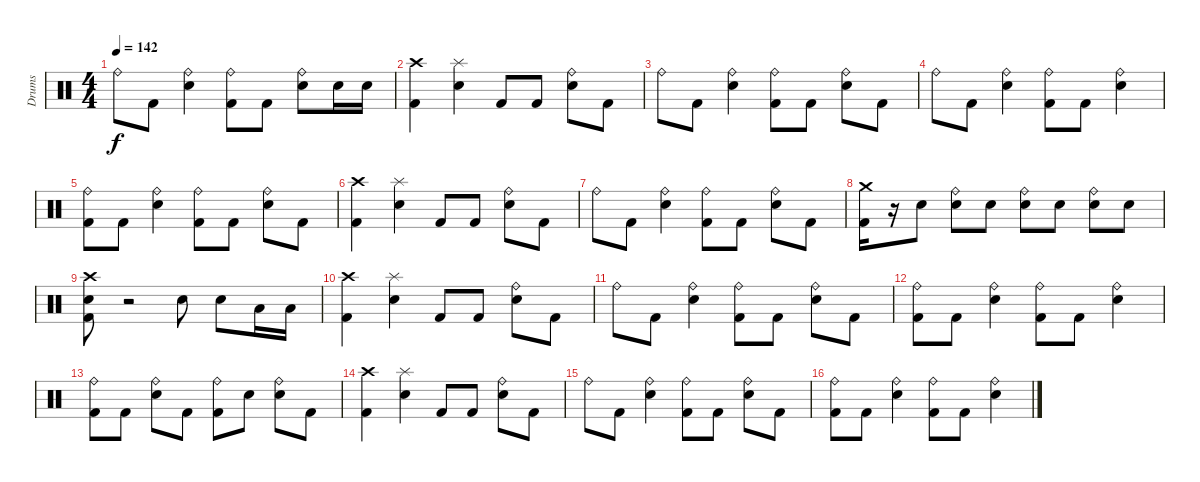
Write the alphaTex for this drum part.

\track ("Drums" "Drums") {instrument percussion}
\staff {score}
\articulation defaults
\ts (4 4)
\tempo 142
\clef neutral
\ks c "Ride (bell)".8{dy f} "Kick (hit) 2".8
("Snare (hit) 2" "Ride (bell)").4 ("Kick (hit) 2" "Ride (bell)").8 "Kick (hit) 2".8 ("Snare (hit) 2" "Ride (bell)").8 "Snare (hit) 2".16 "Snare (hit) 2".16 |
("Kick (hit) 2" "Crash high (hit)").4 ("Snare (hit) 2" "Splash (hit)").4 "Kick (hit) 2".8 "Kick (hit) 2".8 ("Snare (hit) 2" "Ride (bell)").8 "Kick (hit) 2".8 |
"Ride (bell)".8 "Kick (hit) 2".8 ("Snare (hit) 2" "Ride (bell)").4 ("Kick (hit) 2" "Ride (bell)").8 "Kick (hit) 2".8 ("Snare (hit) 2" "Ride (bell)").8 "Kick (hit) 2".8 |
"Ride (bell)".8 "Kick (hit) 2".8 ("Snare (hit) 2" "Ride (bell)").4 ("Kick (hit) 2" "Ride (bell)").8 "Kick (hit) 2".8 ("Snare (hit) 2" "Ride (bell)").4 |
("Kick (hit) 2" "Ride (bell)").8 "Kick (hit) 2".8 ("Snare (hit) 2" "Ride (bell)").4 ("Kick (hit) 2" "Ride (bell)").8 "Kick (hit) 2".8 ("Snare (hit) 2" "Ride (bell)").8 "Kick (hit) 2".8 |
("Kick (hit) 2" "Crash high (hit)").4 ("Snare (hit) 2" "Splash (hit)").4 "Kick (hit) 2".8 "Kick (hit) 2".8 ("Snare (hit) 2" "Ride (bell)").8 "Kick (hit) 2".8 |
"Ride (bell)".8 "Kick (hit) 2".8 ("Snare (hit) 2" "Ride (bell)").4 ("Kick (hit) 2" "Ride (bell)").8 "Kick (hit) 2".8 ("Snare (hit) 2" "Ride (bell)").8 "Kick (hit) 2".8 |
("Kick (hit) 2" "Crash medium (hit)").16 r.16{volume 4} "Snare (hit) 2".8{volume 15} ("Snare (hit) 2" "Ride (bell)").8 "Snare (hit) 2".8 ("Snare (hit) 2" "Ride (bell)").8 "Snare (hit) 2".8 ("Snare (hit) 2" "Ride (bell)").8 "Snare (hit) 2".8 |
("Kick (hit) 2" "Snare (hit) 2" "Crash high (hit)").8 r.2 "Snare (hit) 2".8 "Snare (hit) 2".8 "Low Tom (hit)".16 "Low Tom (hit)".16 |
("Kick (hit) 2" "Crash high (hit)").4 ("Snare (hit) 2" "Splash (hit)").4 "Kick (hit) 2".8 "Kick (hit) 2".8 ("Snare (hit) 2" "Ride (bell)").8 "Kick (hit) 2".8 |
"Ride (bell)".8 "Kick (hit) 2".8 ("Snare (hit) 2" "Ride (bell)").4 ("Kick (hit) 2" "Ride (bell)").8 "Kick (hit) 2".8 ("Snare (hit) 2" "Ride (bell)").8 "Kick (hit) 2".8 |
("Kick (hit) 2" "Ride (bell)").8 "Kick (hit) 2".8 ("Snare (hit) 2" "Ride (bell)").4 ("Kick (hit) 2" "Ride (bell)").8 "Kick (hit) 2".8 ("Snare (hit) 2" "Ride (bell)").4 |
("Kick (hit) 2" "Ride (bell)").8 "Kick (hit) 2".8 ("Snare (hit) 2" "Ride (bell)").8 "Kick (hit) 2".8 ("Kick (hit) 2" "Ride (bell)").8 "Snare (hit) 2".8 ("Snare (hit) 2" "Ride (bell)").8 "Kick (hit) 2".8 |
("Kick (hit) 2" "Crash high (hit)").4 ("Snare (hit) 2" "Splash (hit)").4 "Kick (hit) 2".8 "Kick (hit) 2".8 ("Snare (hit) 2" "Ride (bell)").8 "Kick (hit) 2".8 |
"Ride (bell)".8 "Kick (hit) 2".8 ("Snare (hit) 2" "Ride (bell)").4 ("Kick (hit) 2" "Ride (bell)").8 "Kick (hit) 2".8 ("Snare (hit) 2" "Ride (bell)").8 "Kick (hit) 2".8 |
("Kick (hit) 2" "Ride (bell)").8 "Kick (hit) 2".8 ("Snare (hit) 2" "Ride (bell)").4 ("Kick (hit) 2" "Ride (bell)").8 "Kick (hit) 2".8 ("Snare (hit) 2" "Ride (bell)").4
